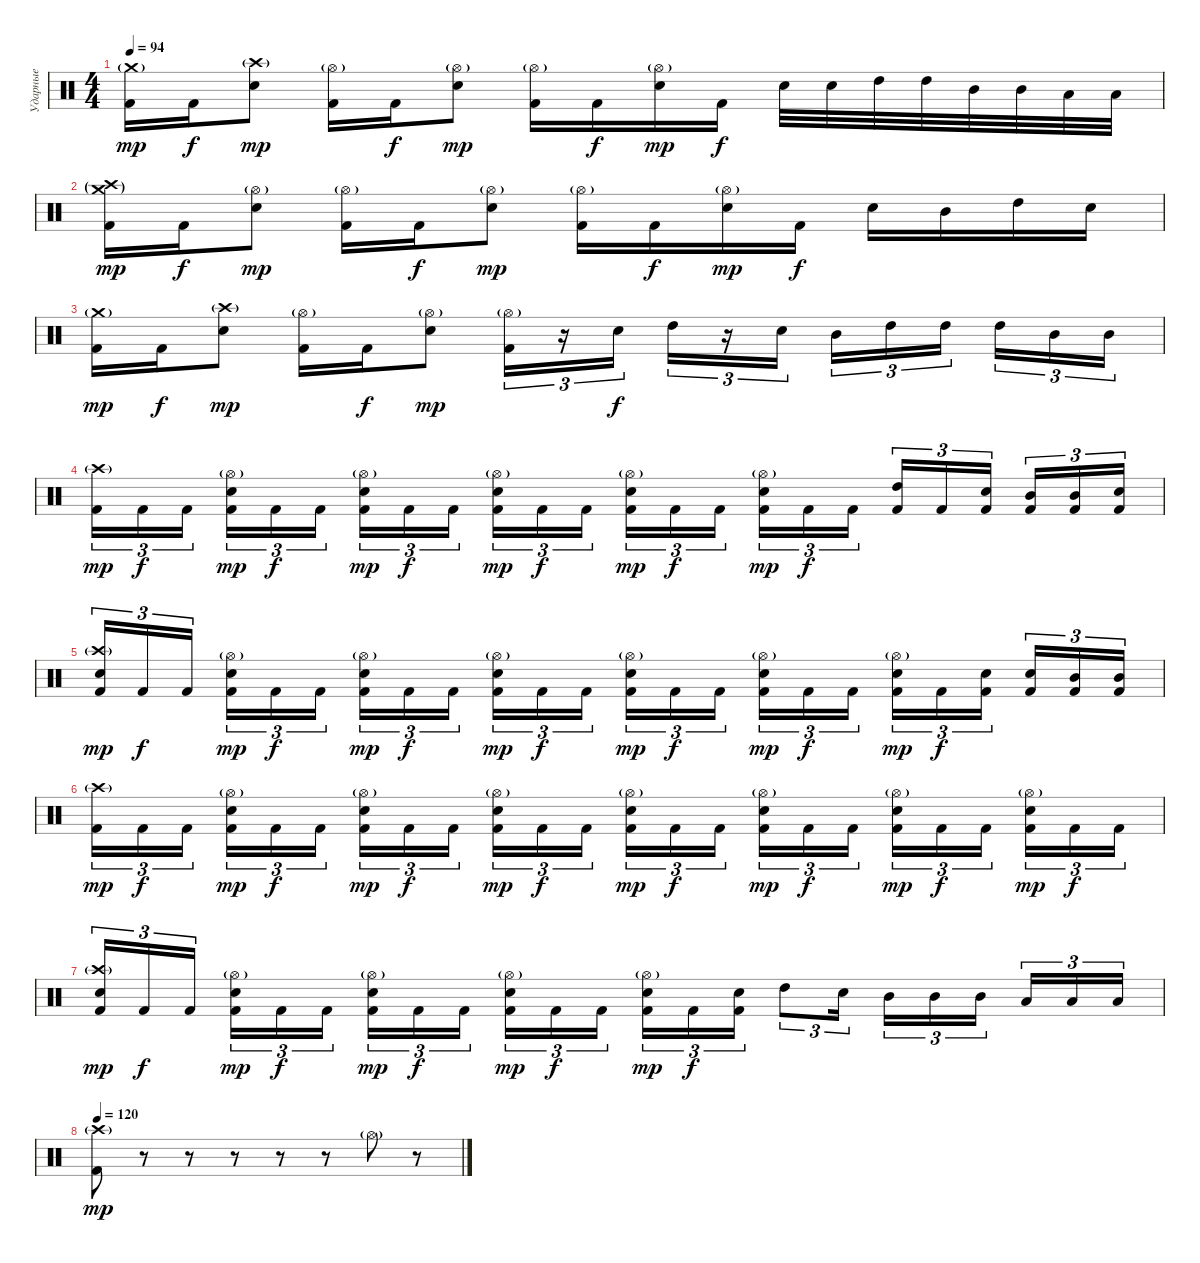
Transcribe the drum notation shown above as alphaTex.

\track ("Ударные" "Ударные") {instrument percussion}
\staff {score}
\articulation defaults
\ts (4 4)
\tempo 94
\clef neutral
\ks c
("Crash medium (hit)"{g} "Kick (hit) 2").16{dy mp} "Kick (hit) 2".16{dy f} ("Crash high (hit)"{g} "Electric Snare (hit)").8{dy mp} ("Hi-Hat (open)"{g} "Kick (hit) 2").16 "Kick (hit) 2".16{dy f} ("Hi-Hat (open)"{g} "Electric Snare (hit)").8{dy mp} ("Hi-Hat (open)"{g} "Kick (hit) 2").16 "Kick (hit) 2".16{dy f} ("Hi-Hat (open)"{g} "Electric Snare (hit)").16{dy mp} "Kick (hit) 2".16{dy f} "Electric Snare (hit)".32 "Electric Snare (hit)".32 "High Tom (hit)".32 "High Tom (hit)".32 "Mid Tom (hit)".32 "Mid Tom (hit)".32 "Low Tom (hit)".32 "Low Tom (hit)".32 |
("Crash high (hit)"{g} "Crash medium (hit)"{g} "Kick (hit) 2").16{dy mp} "Kick (hit) 2".16{dy f} ("Hi-Hat (open)"{g} "Electric Snare (hit)").8{dy mp} ("Hi-Hat (open)"{g} "Kick (hit) 2").16 "Kick (hit) 2".16{dy f} ("Hi-Hat (open)"{g} "Electric Snare (hit)").8{dy mp} ("Hi-Hat (open)"{g} "Kick (hit) 2").16 "Kick (hit) 2".16{dy f} ("Hi-Hat (open)"{g} "Electric Snare (hit)").16{dy mp} "Kick (hit) 2".16{dy f} "Electric Snare (hit)".16 "Mid Tom (hit)".16 "High Tom (hit)".16 "Electric Snare (hit)".16 |
("Crash medium (hit)"{g} "Kick (hit) 2").16{dy mp} "Kick (hit) 2".16{dy f} ("Crash high (hit)"{g} "Electric Snare (hit)").8{dy mp} ("Hi-Hat (open)"{g} "Kick (hit) 2").16 "Kick (hit) 2".16{dy f} ("Hi-Hat (open)"{g} "Electric Snare (hit)").8{dy mp} ("Hi-Hat (open)"{g} "Kick (hit) 2").16{tu (3 2)} r.16{tu (3 2)} "Electric Snare (hit)".16{tu (3 2) dy f} "High Tom (hit)".16{tu (3 2)} r.16{tu (3 2)} "Electric Snare (hit)".16{tu (3 2)} "Mid Tom (hit)".16{tu (3 2)} "High Tom (hit)".16{tu (3 2)} "High Tom (hit)".16{tu (3 2)} "High Tom (hit)".16{tu (3 2)} "Mid Tom (hit)".16{tu (3 2)} "Mid Tom (hit)".16{tu (3 2)} |
("Crash high (hit)"{g} "Kick (hit) 2").16{tu (3 2) dy mp} "Kick (hit) 2".16{tu (3 2) dy f} "Kick (hit) 2".16{tu (3 2)} ("Hi-Hat (open)"{g} "Electric Snare (hit)" "Kick (hit) 2").16{tu (3 2) dy mp} "Kick (hit) 2".16{tu (3 2) dy f} "Kick (hit) 2".16{tu (3 2)} ("Hi-Hat (open)"{g} "Electric Snare (hit)" "Kick (hit) 2").16{tu (3 2) dy mp} "Kick (hit) 2".16{tu (3 2) dy f} "Kick (hit) 2".16{tu (3 2)} ("Hi-Hat (open)"{g} "Electric Snare (hit)" "Kick (hit) 2").16{tu (3 2) dy mp} "Kick (hit) 2".16{tu (3 2) dy f} "Kick (hit) 2".16{tu (3 2)} ("Hi-Hat (open)"{g} "Electric Snare (hit)" "Kick (hit) 2").16{tu (3 2) dy mp} "Kick (hit) 2".16{tu (3 2) dy f} "Kick (hit) 2".16{tu (3 2)} ("Hi-Hat (open)"{g} "Electric Snare (hit)" "Kick (hit) 2").16{tu (3 2) dy mp} "Kick (hit) 2".16{tu (3 2) dy f} "Kick (hit) 2".16{tu (3 2)} ("High Tom (hit)" "Kick (hit) 2").16{tu (3 2)} "Kick (hit) 2".16{tu (3 2)} ("Electric Snare (hit)" "Kick (hit) 2").16{tu (3 2)} ("Mid Tom (hit)" "Kick (hit) 2").16{tu (3 2)} ("Mid Tom (hit)" "Kick (hit) 2").16{tu (3 2)} ("Electric Snare (hit)" "Kick (hit) 2").16{tu (3 2)} |
("Crash high (hit)"{g} "Electric Snare (hit)" "Kick (hit) 2").16{tu (3 2) dy mp} "Kick (hit) 2".16{tu (3 2) dy f} "Kick (hit) 2".16{tu (3 2)} ("Hi-Hat (open)"{g} "Electric Snare (hit)" "Kick (hit) 2").16{tu (3 2) dy mp} "Kick (hit) 2".16{tu (3 2) dy f} "Kick (hit) 2".16{tu (3 2)} ("Hi-Hat (open)"{g} "Electric Snare (hit)" "Kick (hit) 2").16{tu (3 2) dy mp} "Kick (hit) 2".16{tu (3 2) dy f} "Kick (hit) 2".16{tu (3 2)} ("Hi-Hat (open)"{g} "Electric Snare (hit)" "Kick (hit) 2").16{tu (3 2) dy mp} "Kick (hit) 2".16{tu (3 2) dy f} "Kick (hit) 2".16{tu (3 2)} ("Hi-Hat (open)"{g} "Electric Snare (hit)" "Kick (hit) 2").16{tu (3 2) dy mp} "Kick (hit) 2".16{tu (3 2) dy f} "Kick (hit) 2".16{tu (3 2)} ("Hi-Hat (open)"{g} "Electric Snare (hit)" "Kick (hit) 2").16{tu (3 2) dy mp} "Kick (hit) 2".16{tu (3 2) dy f} "Kick (hit) 2".16{tu (3 2)} ("Hi-Hat (open)"{g} "Electric Snare (hit)" "Kick (hit) 2").16{tu (3 2) dy mp} "Kick (hit) 2".16{tu (3 2) dy f} ("Electric Snare (hit)" "Kick (hit) 2").16{tu (3 2)} ("Electric Snare (hit)" "Kick (hit) 2").16{tu (3 2)} ("Mid Tom (hit)" "Kick (hit) 2").16{tu (3 2)} ("Mid Tom (hit)" "Kick (hit) 2").16{tu (3 2)} |
("Crash high (hit)"{g} "Kick (hit) 2").16{tu (3 2) dy mp} "Kick (hit) 2".16{tu (3 2) dy f} "Kick (hit) 2".16{tu (3 2)} ("Hi-Hat (open)"{g} "Electric Snare (hit)" "Kick (hit) 2").16{tu (3 2) dy mp} "Kick (hit) 2".16{tu (3 2) dy f} "Kick (hit) 2".16{tu (3 2)} ("Hi-Hat (open)"{g} "Electric Snare (hit)" "Kick (hit) 2").16{tu (3 2) dy mp} "Kick (hit) 2".16{tu (3 2) dy f} "Kick (hit) 2".16{tu (3 2)} ("Hi-Hat (open)"{g} "Electric Snare (hit)" "Kick (hit) 2").16{tu (3 2) dy mp} "Kick (hit) 2".16{tu (3 2) dy f} "Kick (hit) 2".16{tu (3 2)} ("Hi-Hat (open)"{g} "Electric Snare (hit)" "Kick (hit) 2").16{tu (3 2) dy mp} "Kick (hit) 2".16{tu (3 2) dy f} "Kick (hit) 2".16{tu (3 2)} ("Hi-Hat (open)"{g} "Electric Snare (hit)" "Kick (hit) 2").16{tu (3 2) dy mp} "Kick (hit) 2".16{tu (3 2) dy f} "Kick (hit) 2".16{tu (3 2)} ("Hi-Hat (open)"{g} "Electric Snare (hit)" "Kick (hit) 2").16{tu (3 2) dy mp} "Kick (hit) 2".16{tu (3 2) dy f} "Kick (hit) 2".16{tu (3 2)} ("Hi-Hat (open)"{g} "Electric Snare (hit)" "Kick (hit) 2").16{tu (3 2) dy mp} "Kick (hit) 2".16{tu (3 2) dy f} "Kick (hit) 2".16{tu (3 2)} |
("Crash high (hit)"{g} "Electric Snare (hit)" "Kick (hit) 2").16{tu (3 2) dy mp} "Kick (hit) 2".16{tu (3 2) dy f} "Kick (hit) 2".16{tu (3 2)} ("Hi-Hat (open)"{g} "Electric Snare (hit)" "Kick (hit) 2").16{tu (3 2) dy mp} "Kick (hit) 2".16{tu (3 2) dy f} "Kick (hit) 2".16{tu (3 2)} ("Hi-Hat (open)"{g} "Electric Snare (hit)" "Kick (hit) 2").16{tu (3 2) dy mp} "Kick (hit) 2".16{tu (3 2) dy f} "Kick (hit) 2".16{tu (3 2)} ("Hi-Hat (open)"{g} "Electric Snare (hit)" "Kick (hit) 2").16{tu (3 2) dy mp} "Kick (hit) 2".16{tu (3 2) dy f} "Kick (hit) 2".16{tu (3 2)} ("Hi-Hat (open)"{g} "Electric Snare (hit)" "Kick (hit) 2").16{tu (3 2) dy mp} "Kick (hit) 2".16{tu (3 2) dy f} ("Electric Snare (hit)" "Kick (hit) 2").16{tu (3 2)} "High Tom (hit)".8{tu (3 2)} "Electric Snare (hit)".16{tu (3 2)} "Mid Tom (hit)".16{tu (3 2)} "Mid Tom (hit)".16{tu (3 2)} "Mid Tom (hit)".16{tu (3 2)} "Low Tom (hit)".16{tu (3 2)} "Low Tom (hit)".16{tu (3 2)} "Low Tom (hit)".16{tu (3 2)} |
\tempo 120
("Crash high (hit)"{g} "Kick (hit) 2").8{dy mp} r.8{volume 0} r.8 r.8 r.8 r.8 "Hi-Hat (open)"{g}.8{volume 16} r.8
